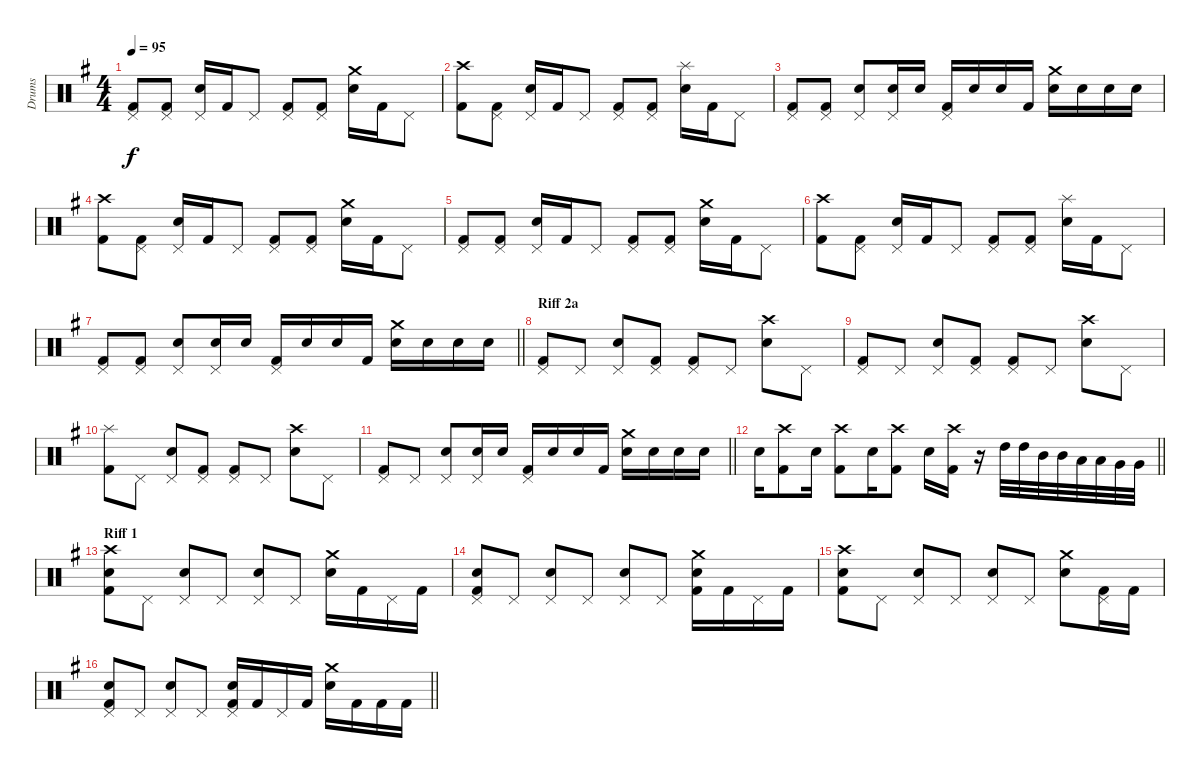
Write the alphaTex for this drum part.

\track ("Drums" "Drums") {instrument percussion}
\staff {score}
\articulation defaults
\ts (4 4)
\tempo 95
\clef neutral
\ks eminor
("Pedal Hi-Hat (hit)" "Kick (hit) 2").8{dy f} ("Pedal Hi-Hat (hit)" "Kick (hit) 2").8 ("Pedal Hi-Hat (hit)" "Electric Snare (hit)").16 "Kick (hit) 2".16 "Pedal Hi-Hat (hit)".8 ("Pedal Hi-Hat (hit)" "Kick (hit) 2").8 ("Pedal Hi-Hat (hit)" "Kick (hit) 2").8 ("Crash medium (hit)" "Electric Snare (hit)").16 "Kick (hit) 2".16 "Pedal Hi-Hat (hit)".8 |
("Crash high (hit)" "Kick (hit) 2").8 ("Pedal Hi-Hat (hit)" "Kick (hit) 2").8 ("Pedal Hi-Hat (hit)" "Electric Snare (hit)").16 "Kick (hit) 2".16 "Pedal Hi-Hat (hit)".8 ("Pedal Hi-Hat (hit)" "Kick (hit) 2").8 ("Pedal Hi-Hat (hit)" "Kick (hit) 2").8 ("Splash (hit)" "Electric Snare (hit)").16 "Kick (hit) 2".16 "Pedal Hi-Hat (hit)".8 |
("Pedal Hi-Hat (hit)" "Kick (hit) 2").8 ("Pedal Hi-Hat (hit)" "Kick (hit) 2").8 ("Pedal Hi-Hat (hit)" "Electric Snare (hit)").8 ("Pedal Hi-Hat (hit)" "Electric Snare (hit)").16 "Electric Snare (hit)".16 ("Pedal Hi-Hat (hit)" "Kick (hit) 2").16 "Electric Snare (hit)".16 "Electric Snare (hit)".16 "Kick (hit) 2".16 ("Crash medium (hit)" "Electric Snare (hit)").16 "Electric Snare (hit)".16 "Electric Snare (hit)".16 "Electric Snare (hit)".16 |
("Crash high (hit)" "Kick (hit) 2").8 ("Pedal Hi-Hat (hit)" "Kick (hit) 2").8 ("Pedal Hi-Hat (hit)" "Electric Snare (hit)").16 "Kick (hit) 2".16 "Pedal Hi-Hat (hit)".8 ("Pedal Hi-Hat (hit)" "Kick (hit) 2").8 ("Pedal Hi-Hat (hit)" "Kick (hit) 2").8 ("Crash medium (hit)" "Electric Snare (hit)").16 "Kick (hit) 2".16 "Pedal Hi-Hat (hit)".8 |
("Pedal Hi-Hat (hit)" "Kick (hit) 2").8 ("Pedal Hi-Hat (hit)" "Kick (hit) 2").8 ("Pedal Hi-Hat (hit)" "Electric Snare (hit)").16 "Kick (hit) 2".16 "Pedal Hi-Hat (hit)".8 ("Pedal Hi-Hat (hit)" "Kick (hit) 2").8 ("Pedal Hi-Hat (hit)" "Kick (hit) 2").8 ("Crash medium (hit)" "Electric Snare (hit)").16 "Kick (hit) 2".16 "Pedal Hi-Hat (hit)".8 |
("Crash high (hit)" "Kick (hit) 2").8 ("Pedal Hi-Hat (hit)" "Kick (hit) 2").8 ("Pedal Hi-Hat (hit)" "Electric Snare (hit)").16 "Kick (hit) 2".16 "Pedal Hi-Hat (hit)".8 ("Pedal Hi-Hat (hit)" "Kick (hit) 2").8 ("Pedal Hi-Hat (hit)" "Kick (hit) 2").8 ("Splash (hit)" "Electric Snare (hit)").16 "Kick (hit) 2".16 "Pedal Hi-Hat (hit)".8 |
\barLineRight lightlight
("Pedal Hi-Hat (hit)" "Kick (hit) 2").8 ("Pedal Hi-Hat (hit)" "Kick (hit) 2").8 ("Pedal Hi-Hat (hit)" "Electric Snare (hit)").8 ("Pedal Hi-Hat (hit)" "Electric Snare (hit)").16 "Electric Snare (hit)".16 ("Pedal Hi-Hat (hit)" "Kick (hit) 2").16 "Electric Snare (hit)".16 "Electric Snare (hit)".16 "Kick (hit) 2".16 ("Crash medium (hit)" "Electric Snare (hit)").16 "Electric Snare (hit)".16 "Electric Snare (hit)".16 "Electric Snare (hit)".16 |
\section ("" "Riff 2a")
("Pedal Hi-Hat (hit)" "Kick (hit) 2").8 "Pedal Hi-Hat (hit)".8 ("Pedal Hi-Hat (hit)" "Electric Snare (hit)").8 ("Pedal Hi-Hat (hit)" "Kick (hit) 2").8 ("Pedal Hi-Hat (hit)" "Kick (hit) 2").8 "Pedal Hi-Hat (hit)".8 ("Crash high (hit)" "Electric Snare (hit)").8 "Pedal Hi-Hat (hit)".8 |
("Pedal Hi-Hat (hit)" "Kick (hit) 2").8 "Pedal Hi-Hat (hit)".8 ("Pedal Hi-Hat (hit)" "Electric Snare (hit)").8 ("Pedal Hi-Hat (hit)" "Kick (hit) 2").8 ("Pedal Hi-Hat (hit)" "Kick (hit) 2").8 "Pedal Hi-Hat (hit)".8 ("Crash high (hit)" "Electric Snare (hit)").8 "Pedal Hi-Hat (hit)".8 |
("Splash (hit)" "Kick (hit) 2").8 "Pedal Hi-Hat (hit)".8 ("Pedal Hi-Hat (hit)" "Electric Snare (hit)").8 ("Pedal Hi-Hat (hit)" "Kick (hit) 2").8 ("Pedal Hi-Hat (hit)" "Kick (hit) 2").8 "Pedal Hi-Hat (hit)".8 ("Crash high (hit)" "Electric Snare (hit)").8 "Pedal Hi-Hat (hit)".8 |
\barLineRight lightlight
("Pedal Hi-Hat (hit)" "Kick (hit) 2").8 "Pedal Hi-Hat (hit)".8 ("Pedal Hi-Hat (hit)" "Electric Snare (hit)").8 ("Pedal Hi-Hat (hit)" "Electric Snare (hit)").16 "Electric Snare (hit)".16 ("Pedal Hi-Hat (hit)" "Kick (hit) 2").16 "Electric Snare (hit)".16 "Electric Snare (hit)".16 "Kick (hit) 2".16 ("Crash medium (hit)" "Electric Snare (hit)").16 "Electric Snare (hit)".16 "Electric Snare (hit)".16 "Electric Snare (hit)".16 |
\barLineRight lightlight "Electric Snare (hit)".16
("Crash high (hit)" "Kick (hit) 2").8 "Electric Snare (hit)".16 ("Crash high (hit)" "Kick (hit) 2").8 "Electric Snare (hit)".16 ("Crash high (hit)" "Kick (hit) 2").8 "Electric Snare (hit)".16 ("Crash high (hit)" "Kick (hit) 2").16 r.16{volume 0} "High Tom (hit)".32{volume 13} "High Tom (hit)".32 "Mid Tom (hit)".32 "Mid Tom (hit)".32 "Low Tom (hit)".32 "Low Tom (hit)".32 "Very Low Tom (hit)".32 "Very Low Tom (hit)".32 |
\section ("" "Riff 1")
("Crash high (hit)" "Electric Snare (hit)" "Kick (hit) 2").8 "Pedal Hi-Hat (hit)".8 ("Pedal Hi-Hat (hit)" "Electric Snare (hit)").8 "Pedal Hi-Hat (hit)".8 ("Pedal Hi-Hat (hit)" "Electric Snare (hit)").8 "Pedal Hi-Hat (hit)".8 ("Crash medium (hit)" "Electric Snare (hit)").16 "Kick (hit) 2".16 "Pedal Hi-Hat (hit)".16 "Kick (hit) 2".16 |
("Pedal Hi-Hat (hit)" "Electric Snare (hit)" "Kick (hit) 2").8 "Pedal Hi-Hat (hit)".8 ("Pedal Hi-Hat (hit)" "Electric Snare (hit)").8 "Pedal Hi-Hat (hit)".8 ("Pedal Hi-Hat (hit)" "Electric Snare (hit)").8 "Pedal Hi-Hat (hit)".8 ("Crash medium (hit)" "Electric Snare (hit)" "Kick (hit) 2").16 "Kick (hit) 2".16 "Pedal Hi-Hat (hit)".16 "Kick (hit) 2".16 |
("Crash high (hit)" "Electric Snare (hit)" "Kick (hit) 2").8 "Pedal Hi-Hat (hit)".8 ("Pedal Hi-Hat (hit)" "Electric Snare (hit)").8 "Pedal Hi-Hat (hit)".8 ("Pedal Hi-Hat (hit)" "Electric Snare (hit)").8 "Pedal Hi-Hat (hit)".8 ("Crash medium (hit)" "Electric Snare (hit)").8 ("Pedal Hi-Hat (hit)" "Kick (hit) 2").16 "Kick (hit) 2".16 |
\barLineRight lightlight
("Pedal Hi-Hat (hit)" "Electric Snare (hit)" "Kick (hit) 2").8 "Pedal Hi-Hat (hit)".8 ("Pedal Hi-Hat (hit)" "Electric Snare (hit)").8 "Pedal Hi-Hat (hit)".8 ("Pedal Hi-Hat (hit)" "Electric Snare (hit)" "Kick (hit) 2").16 "Kick (hit) 2".16 "Pedal Hi-Hat (hit)".16 "Kick (hit) 2".16 ("Crash medium (hit)" "Electric Snare (hit)").16 "Kick (hit) 2".16 "Kick (hit) 2".16 "Kick (hit) 2".16
